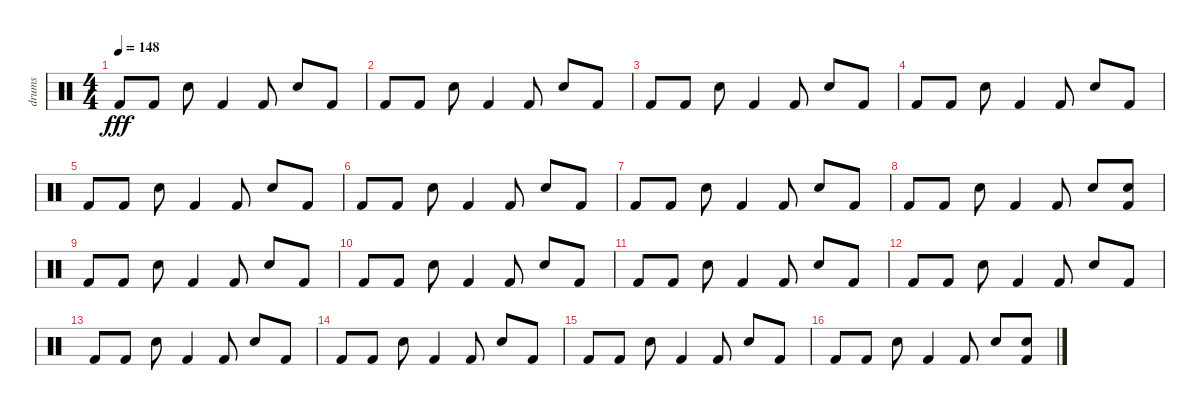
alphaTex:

\track ("drums" "drums") {instrument percussion}
\staff {score}
\articulation defaults
\ts (4 4)
\tempo 148
\clef neutral
\ks c "Kick (hit) 2".8{dy fff} "Kick (hit) 2".8 "Electric Snare (hit)".8 "Kick (hit) 2".4 "Kick (hit) 2".8 "Electric Snare (hit)".8 "Kick (hit) 2".8
|
"Kick (hit) 2".8 "Kick (hit) 2".8 "Electric Snare (hit)".8 "Kick (hit) 2".4 "Kick (hit) 2".8 "Electric Snare (hit)".8 "Kick (hit) 2".8 |
"Kick (hit) 2".8 "Kick (hit) 2".8 "Electric Snare (hit)".8 "Kick (hit) 2".4 "Kick (hit) 2".8 "Electric Snare (hit)".8 "Kick (hit) 2".8 |
"Kick (hit) 2".8 "Kick (hit) 2".8 "Electric Snare (hit)".8 "Kick (hit) 2".4 "Kick (hit) 2".8 "Electric Snare (hit)".8 "Kick (hit) 2".8 |
"Kick (hit) 2".8 "Kick (hit) 2".8 "Electric Snare (hit)".8 "Kick (hit) 2".4 "Kick (hit) 2".8 "Electric Snare (hit)".8 "Kick (hit) 2".8 |
"Kick (hit) 2".8 "Kick (hit) 2".8 "Electric Snare (hit)".8 "Kick (hit) 2".4 "Kick (hit) 2".8 "Electric Snare (hit)".8 "Kick (hit) 2".8 |
"Kick (hit) 2".8 "Kick (hit) 2".8 "Electric Snare (hit)".8 "Kick (hit) 2".4 "Kick (hit) 2".8 "Electric Snare (hit)".8 "Kick (hit) 2".8 |
"Kick (hit) 2".8 "Kick (hit) 2".8 "Electric Snare (hit)".8 "Kick (hit) 2".4 "Kick (hit) 2".8 "Electric Snare (hit)".8 ("Kick (hit) 2" "Electric Snare (hit)").8 |
"Kick (hit) 2".8 "Kick (hit) 2".8 "Electric Snare (hit)".8 "Kick (hit) 2".4 "Kick (hit) 2".8 "Electric Snare (hit)".8 "Kick (hit) 2".8 |
"Kick (hit) 2".8 "Kick (hit) 2".8 "Electric Snare (hit)".8 "Kick (hit) 2".4 "Kick (hit) 2".8 "Electric Snare (hit)".8 "Kick (hit) 2".8 |
"Kick (hit) 2".8 "Kick (hit) 2".8 "Electric Snare (hit)".8 "Kick (hit) 2".4 "Kick (hit) 2".8 "Electric Snare (hit)".8 "Kick (hit) 2".8 |
"Kick (hit) 2".8 "Kick (hit) 2".8 "Electric Snare (hit)".8 "Kick (hit) 2".4 "Kick (hit) 2".8 "Electric Snare (hit)".8 "Kick (hit) 2".8 |
"Kick (hit) 2".8 "Kick (hit) 2".8 "Electric Snare (hit)".8 "Kick (hit) 2".4 "Kick (hit) 2".8 "Electric Snare (hit)".8 "Kick (hit) 2".8 |
"Kick (hit) 2".8 "Kick (hit) 2".8 "Electric Snare (hit)".8 "Kick (hit) 2".4 "Kick (hit) 2".8 "Electric Snare (hit)".8 "Kick (hit) 2".8 |
"Kick (hit) 2".8 "Kick (hit) 2".8 "Electric Snare (hit)".8 "Kick (hit) 2".4 "Kick (hit) 2".8 "Electric Snare (hit)".8 "Kick (hit) 2".8 |
"Kick (hit) 2".8 "Kick (hit) 2".8 "Electric Snare (hit)".8 "Kick (hit) 2".4 "Kick (hit) 2".8 "Electric Snare (hit)".8 ("Kick (hit) 2" "Electric Snare (hit)").8
